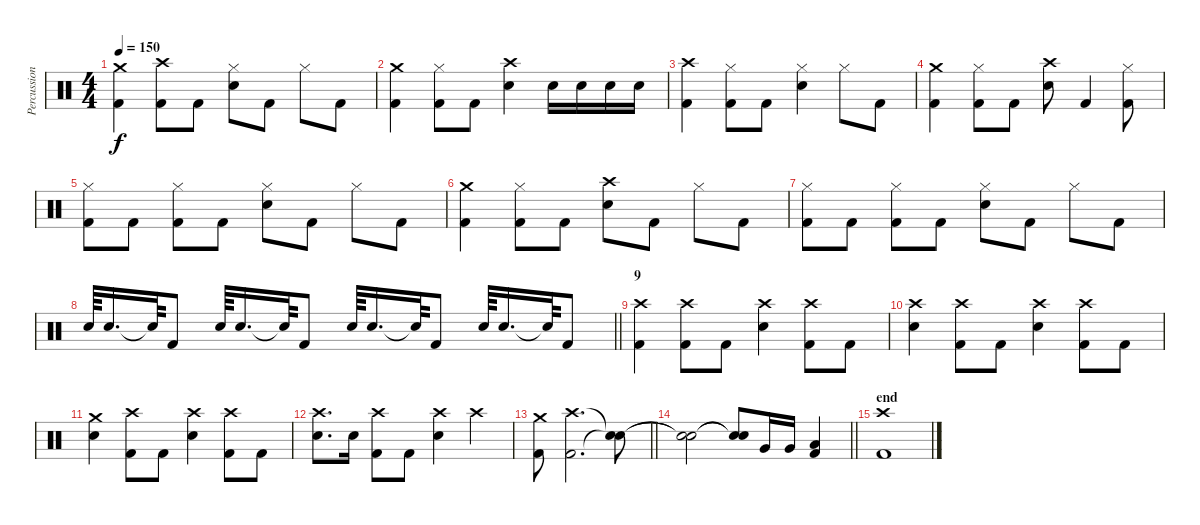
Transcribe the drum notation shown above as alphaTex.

\track ("Percussion" "Percussion") {instrument percussion}
\staff {score}
\articulation defaults
\ts (4 4)
\tempo 150
\clef neutral
\ks c
("Crash medium (hit)" "Kick (hit) 2").4{dy f} ("Crash high (hit)" "Kick (hit) 2").8 "Kick (hit) 2".8 ("Hi-Hat (closed)" "Snare (hit) 2").8 "Kick (hit) 2".8 "Hi-Hat (closed)".8 "Kick (hit) 2".8 |
("Crash medium (hit)" "Kick (hit) 2").4 ("Hi-Hat (closed)" "Kick (hit) 2").8 "Kick (hit) 2".8 ("Crash high (hit)" "Snare (hit) 2").4 "Snare (hit) 2".16 "Snare (hit) 2".16 "Snare (hit) 2".16 "Snare (hit) 2".16 |
("Crash high (hit)" "Kick (hit) 2").4 ("Hi-Hat (closed)" "Kick (hit) 2").8 "Kick (hit) 2".8 ("Hi-Hat (closed)" "Snare (hit) 2").4 "Hi-Hat (closed)".8 "Kick (hit) 2".8 |
("Crash medium (hit)" "Kick (hit) 2").4 ("Hi-Hat (closed)" "Kick (hit) 2").8 "Kick (hit) 2".8 ("Crash high (hit)" "Snare (hit) 2").8 "Kick (hit) 2".4 ("Hi-Hat (closed)" "Kick (hit) 2").8 |
("Hi-Hat (closed)" "Kick (hit) 2").8 "Kick (hit) 2".8 ("Hi-Hat (closed)" "Kick (hit) 2").8 "Kick (hit) 2".8 ("Hi-Hat (closed)" "Snare (hit) 2").8 "Kick (hit) 2".8 "Hi-Hat (closed)".8 "Kick (hit) 2".8 |
("Crash medium (hit)" "Kick (hit) 2").4 ("Hi-Hat (closed)" "Kick (hit) 2").8 "Kick (hit) 2".8 ("Crash high (hit)" "Snare (hit) 2").8 "Kick (hit) 2".8 "Hi-Hat (closed)".8 "Kick (hit) 2".8 |
("Hi-Hat (closed)" "Kick (hit) 2").8 "Kick (hit) 2".8 ("Hi-Hat (closed)" "Kick (hit) 2").8 "Kick (hit) 2".8 ("Hi-Hat (closed)" "Snare (hit) 2").8 "Kick (hit) 2".8 "Hi-Hat (closed)".8 "Kick (hit) 2".8 |
\barLineRight lightlight "Snare (hit) 2".64 "Snare (hit) 2".16{d} "Snare (hit)"{t}.64 "Kick (hit) 2".8 "Snare (hit) 2".64 "Snare (hit) 2".16{d} "Snare (hit)"{t}.64 "Kick (hit) 2".8 "Snare (hit) 2".64 "Snare (hit) 2".16{d} "Snare (hit)"{t}.64 "Kick (hit) 2".8 "Snare (hit) 2".64 "Snare (hit) 2".16{d} "Snare (hit)"{t}.64 "Kick (hit) 2".8
|
\section ("" "9")
("Crash high (hit)" "Kick (hit) 2").4 ("Crash high (hit)" "Kick (hit) 2").8 "Kick (hit) 2".8 ("Crash high (hit)" "Snare (hit) 2").4 ("Crash high (hit)" "Kick (hit) 2").8 "Kick (hit) 2".8 |
("Crash high (hit)" "Snare (hit) 2").4 ("Crash high (hit)" "Kick (hit) 2").8 "Kick (hit) 2".8 ("Crash high (hit)" "Snare (hit) 2").4 ("Crash high (hit)" "Kick (hit) 2").8 "Kick (hit) 2".8 |
("Crash medium (hit)" "Snare (hit) 2").4 ("Crash high (hit)" "Kick (hit) 2").8 "Kick (hit) 2".8 ("Crash high (hit)" "Snare (hit) 2").4 ("Crash high (hit)" "Kick (hit) 2").8 "Kick (hit) 2".8 |
("Crash high (hit)" "Snare (hit) 2").8{d} "Snare (hit) 2".16 ("Crash high (hit)" "Kick (hit) 2").8 "Kick (hit) 2".8 ("Crash high (hit)" "Snare (hit) 2").4 "Crash high (hit)".4 |
\barLineRight lightlight
("Crash medium (hit)" "Kick (hit) 2").8 ("Crash high (hit)" "Kick (hit) 2").2{d} ("Snare (hit)"{t} "Snare (hit)"{t}).8 |
\barLineRight lightlight
("Snare (hit)"{t} "Snare (hit)"{t}).2 ("Snare (hit)"{t} "Snare (hit)"{t}).8 "Very Low Tom (hit)".16 "Very Low Tom (hit)".16 ("Low Floor Tom (hit)" "Kick (hit) 2").4 |
\section ("" "end")
("Crash high (hit)" "Kick (hit) 2").1
